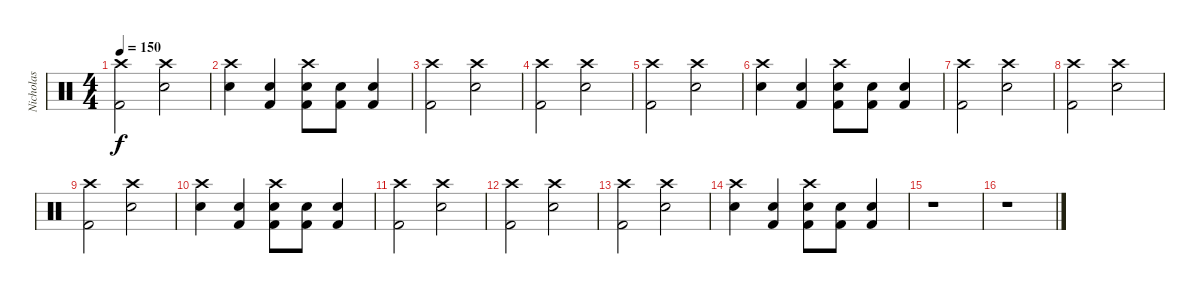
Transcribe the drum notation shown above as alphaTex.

\track ("Nicholas" "Nicholas") {instrument percussion}
\staff {score}
\articulation defaults
\ts (4 4)
\tempo 150
\clef neutral
\ks c
("Crash high (hit)" "Kick (hit) 2").2{dy f} ("Crash high (hit)" "Electric Snare (hit)").2 |
("Crash high (hit)" "Electric Snare (hit)").4 ("Electric Snare (hit)" "Kick (hit) 2").4 ("Crash high (hit)" "Electric Snare (hit)" "Kick (hit) 2").8 ("Electric Snare (hit)" "Kick (hit) 2").8 ("Electric Snare (hit)" "Kick (hit) 2").4 |
("Crash high (hit)" "Kick (hit) 2").2 ("Crash high (hit)" "Electric Snare (hit)").2 |
("Crash high (hit)" "Kick (hit) 2").2 ("Crash high (hit)" "Electric Snare (hit)").2 |
("Crash high (hit)" "Kick (hit) 2").2 ("Crash high (hit)" "Electric Snare (hit)").2 |
("Crash high (hit)" "Electric Snare (hit)").4 ("Electric Snare (hit)" "Kick (hit) 2").4 ("Crash high (hit)" "Electric Snare (hit)" "Kick (hit) 2").8 ("Electric Snare (hit)" "Kick (hit) 2").8 ("Electric Snare (hit)" "Kick (hit) 2").4 |
("Crash high (hit)" "Kick (hit) 2").2 ("Crash high (hit)" "Electric Snare (hit)").2 |
("Crash high (hit)" "Kick (hit) 2").2 ("Crash high (hit)" "Electric Snare (hit)").2 |
("Crash high (hit)" "Kick (hit) 2").2 ("Crash high (hit)" "Electric Snare (hit)").2 |
("Crash high (hit)" "Electric Snare (hit)").4 ("Electric Snare (hit)" "Kick (hit) 2").4 ("Crash high (hit)" "Electric Snare (hit)" "Kick (hit) 2").8 ("Electric Snare (hit)" "Kick (hit) 2").8 ("Electric Snare (hit)" "Kick (hit) 2").4 |
("Crash high (hit)" "Kick (hit) 2").2 ("Crash high (hit)" "Electric Snare (hit)").2 |
("Crash high (hit)" "Kick (hit) 2").2 ("Crash high (hit)" "Electric Snare (hit)").2 |
("Crash high (hit)" "Kick (hit) 2").2 ("Crash high (hit)" "Electric Snare (hit)").2 |
("Crash high (hit)" "Electric Snare (hit)").4 ("Electric Snare (hit)" "Kick (hit) 2").4 ("Crash high (hit)" "Electric Snare (hit)" "Kick (hit) 2").8 ("Electric Snare (hit)" "Kick (hit) 2").8 ("Electric Snare (hit)" "Kick (hit) 2").4 |
r.1 |
r.1
